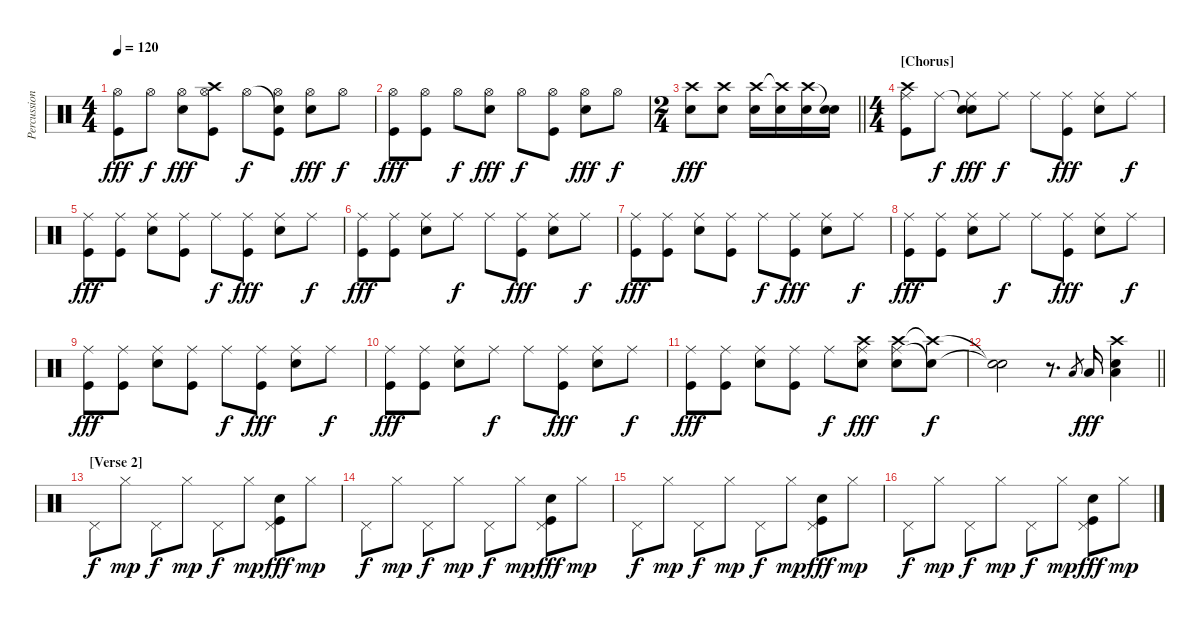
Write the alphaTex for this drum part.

\track ("Percussion" "Percussion") {instrument percussion}
\staff {score}
\articulation defaults
\ts (4 4)
\tempo 120
\clef neutral
\ks c
("Hi-Hat (open)" "Kick (hit)").8{dy fff} "Hi-Hat (open)".8{dy f} ("Hi-Hat (open)" "Snare (hit) 2").8{dy fff} ("Crash high (hit)" "Hi-Hat (open)" "Kick (hit)").8 "Hi-Hat (open)".8{dy f} ("Snare (hit)"{t} "Hi-Hat (open)" "Kick (hit)").8 ("Hi-Hat (open)" "Snare (hit) 2").8{dy fff} "Hi-Hat (open)".8{dy f} |
("Hi-Hat (open)" "Kick (hit)").8{dy fff} ("Hi-Hat (open)" "Kick (hit)").8 "Hi-Hat (open)".8{dy f} ("Hi-Hat (open)" "Snare (hit) 2").8{dy fff} "Hi-Hat (open)".8{dy f} ("Hi-Hat (open)" "Kick (hit)").8 ("Hi-Hat (open)" "Snare (hit) 2").8{dy fff} "Hi-Hat (open)".8{dy f} |
\ts (2 4)
\barLineRight lightlight
("Crash high (hit)" "Snare (hit) 2").8{dy fff} ("Crash high (hit)" "Snare (hit) 2").8 ("Crash high (hit)" "Snare (hit) 2").16 ("Crash high (hit)"{t} "Snare (hit) 2").16 ("Crash high (hit)" "Snare (hit) 2").16 ("Snare (hit)"{t} "Snare (hit) 2").16 |
\ts (4 4)
\section ("" "[Chorus]")
("Crash high (hit)" "Ride (middle)" "Kick (hit)").8 "Ride (middle)".8{dy f} ("Snare (hit)"{t} "Ride (middle)" "Snare (hit) 2").8{dy fff} "Ride (middle)".8{dy f} "Ride (middle)".8 ("Ride (middle)" "Kick (hit)").8{dy fff} ("Ride (middle)" "Snare (hit) 2").8 "Ride (middle)".8{dy f} |
("Ride (middle)" "Kick (hit)").8{dy fff} ("Ride (middle)" "Kick (hit)").8 ("Ride (middle)" "Snare (hit) 2").8 ("Ride (middle)" "Kick (hit)").8 "Ride (middle)".8{dy f} ("Ride (middle)" "Kick (hit)").8{dy fff} ("Ride (middle)" "Snare (hit) 2").8 "Ride (middle)".8{dy f} |
("Ride (middle)" "Kick (hit)").8{dy fff} ("Ride (middle)" "Kick (hit)").8 ("Ride (middle)" "Snare (hit) 2").8 "Ride (middle)".8{dy f} "Ride (middle)".8 ("Ride (middle)" "Kick (hit)").8{dy fff} ("Ride (middle)" "Snare (hit) 2").8 "Ride (middle)".8{dy f} |
("Ride (middle)" "Kick (hit)").8{dy fff} ("Ride (middle)" "Kick (hit)").8 ("Ride (middle)" "Snare (hit) 2").8 ("Ride (middle)" "Kick (hit)").8 "Ride (middle)".8{dy f} ("Ride (middle)" "Kick (hit)").8{dy fff} ("Ride (middle)" "Snare (hit) 2").8 "Ride (middle)".8{dy f} |
("Ride (middle)" "Kick (hit)").8{dy fff} ("Ride (middle)" "Kick (hit)").8 ("Ride (middle)" "Snare (hit) 2").8 "Ride (middle)".8{dy f} "Ride (middle)".8 ("Ride (middle)" "Kick (hit)").8{dy fff} ("Ride (middle)" "Snare (hit) 2").8 "Ride (middle)".8{dy f} |
("Ride (middle)" "Kick (hit)").8{dy fff} ("Ride (middle)" "Kick (hit)").8 ("Ride (middle)" "Snare (hit) 2").8 ("Ride (middle)" "Kick (hit)").8 "Ride (middle)".8{dy f} ("Ride (middle)" "Kick (hit)").8{dy fff} ("Ride (middle)" "Snare (hit) 2").8 "Ride (middle)".8{dy f} |
("Ride (middle)" "Kick (hit)").8{dy fff} ("Ride (middle)" "Kick (hit)").8 ("Ride (middle)" "Snare (hit) 2").8 "Ride (middle)".8{dy f} "Ride (middle)".8 ("Ride (middle)" "Kick (hit)").8{dy fff} ("Ride (middle)" "Snare (hit) 2").8 "Ride (middle)".8{dy f} |
("Ride (middle)" "Kick (hit)").8{dy fff} ("Ride (middle)" "Kick (hit)").8 ("Ride (middle)" "Snare (hit) 2").8 ("Ride (middle)" "Kick (hit)").8 "Ride (middle)".8{dy f} ("Crash high (hit)" "Ride (middle)" "Snare (hit) 2").8{dy fff} ("Crash high (hit)" "Ride (middle)" "Snare (hit) 2").8 ("Crash high (hit)"{t} "Snare (hit) 2"{t}).8{dy f} |
\barLineRight lightlight
("Snare (hit)"{t} "Snare (hit)"{t}).2 r.8{d} "Low Tom (hit)".8{gr} "Low Tom (hit)".16{dy fff} ("Snare (hit) 2" "Low Tom (hit)" "Crash high (hit)").4 |
\section ("" "[Verse 2]")
"Pedal Hi-Hat (hit)".8{dy f} "Hi-Hat (closed)".8{dy mp} "Pedal Hi-Hat (hit)".8{dy f} "Hi-Hat (closed)".8{dy mp} "Pedal Hi-Hat (hit)".8{dy f} "Hi-Hat (closed)".8{dy mp} ("Pedal Hi-Hat (hit)" "Snare (hit) 2" "Kick (hit)").8{dy fff} "Hi-Hat (closed)".8{dy mp} |
"Pedal Hi-Hat (hit)".8{dy f} "Hi-Hat (closed)".8{dy mp} "Pedal Hi-Hat (hit)".8{dy f} "Hi-Hat (closed)".8{dy mp} "Pedal Hi-Hat (hit)".8{dy f} "Hi-Hat (closed)".8{dy mp} ("Pedal Hi-Hat (hit)" "Snare (hit) 2" "Kick (hit)").8{dy fff} "Hi-Hat (closed)".8{dy mp} |
"Pedal Hi-Hat (hit)".8{dy f} "Hi-Hat (closed)".8{dy mp} "Pedal Hi-Hat (hit)".8{dy f} "Hi-Hat (closed)".8{dy mp} "Pedal Hi-Hat (hit)".8{dy f} "Hi-Hat (closed)".8{dy mp} ("Pedal Hi-Hat (hit)" "Snare (hit) 2" "Kick (hit)").8{dy fff} "Hi-Hat (closed)".8{dy mp} |
"Pedal Hi-Hat (hit)".8{dy f} "Hi-Hat (closed)".8{dy mp} "Pedal Hi-Hat (hit)".8{dy f} "Hi-Hat (closed)".8{dy mp} "Pedal Hi-Hat (hit)".8{dy f} "Hi-Hat (closed)".8{dy mp} ("Pedal Hi-Hat (hit)" "Snare (hit) 2" "Kick (hit)").8{dy fff} "Hi-Hat (closed)".8{dy mp}
